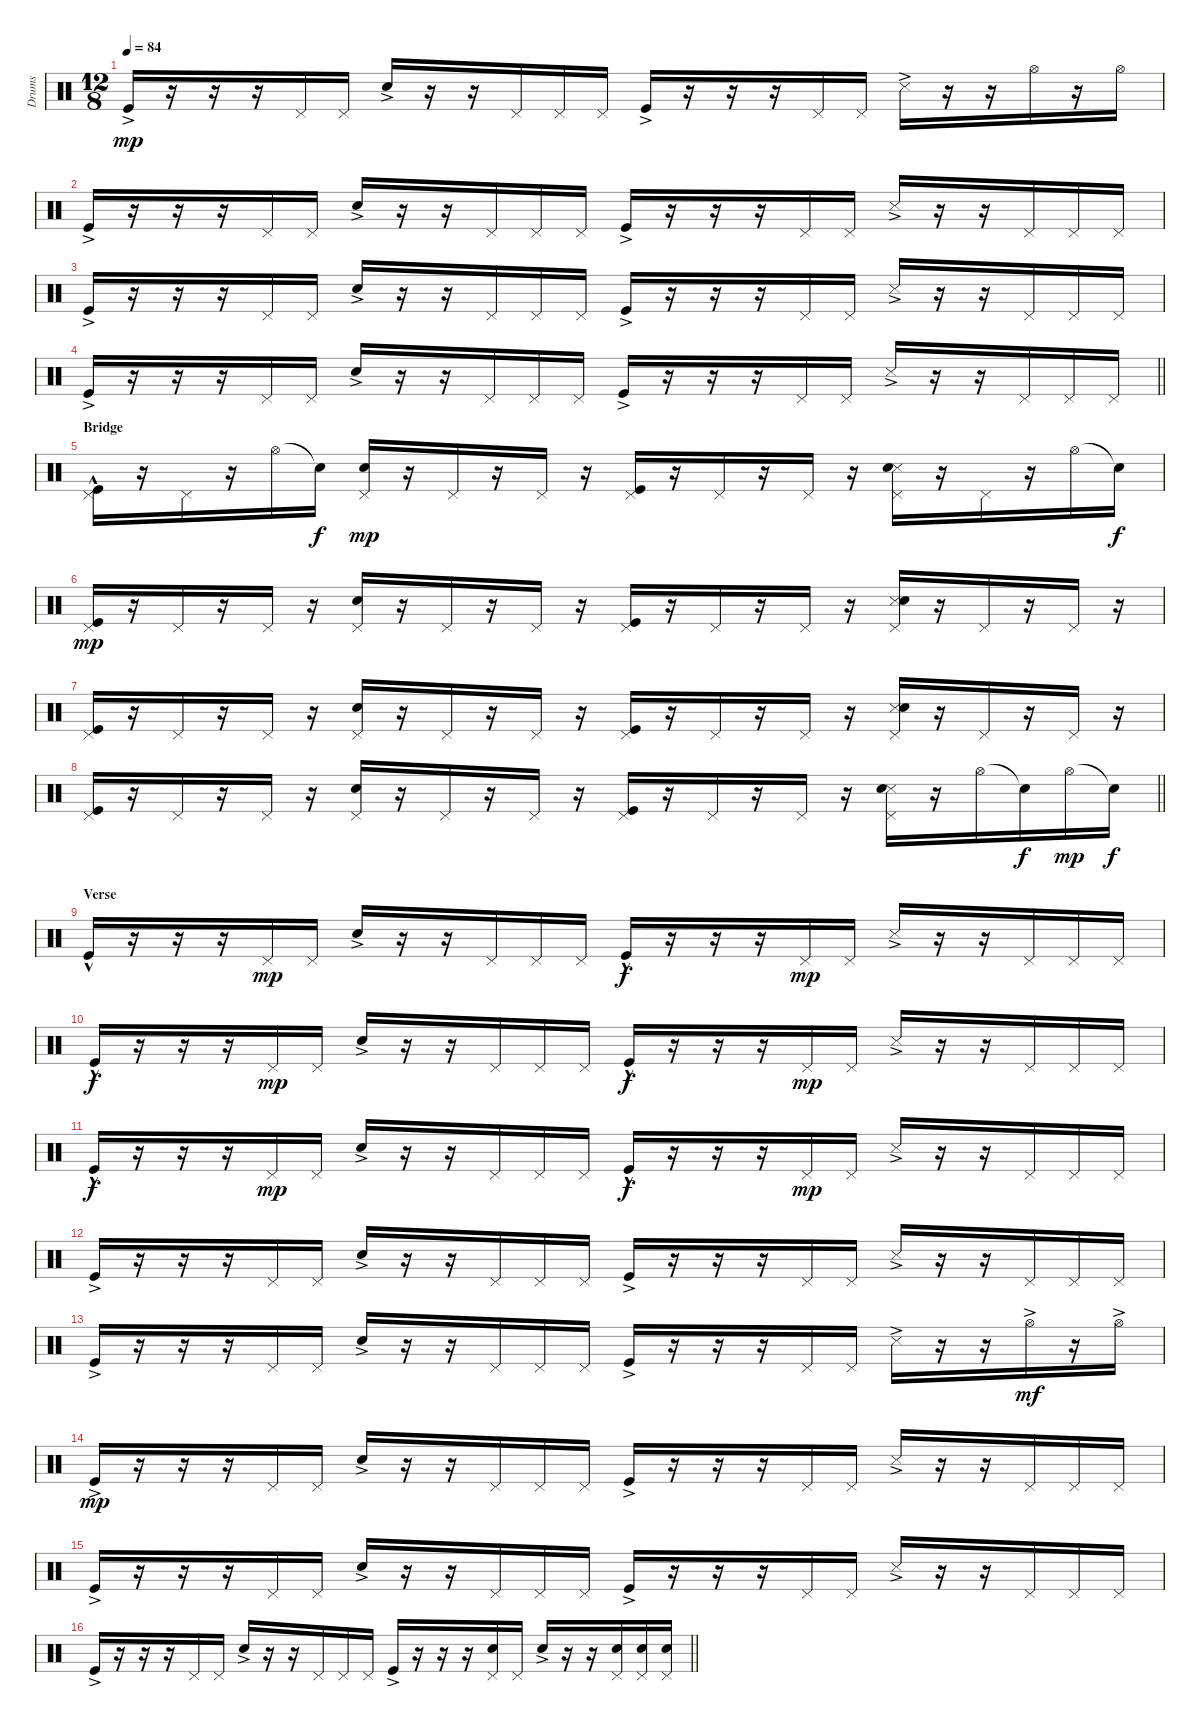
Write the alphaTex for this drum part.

\track ("Drums" "Drums") {instrument percussion}
\staff {score}
\articulation defaults
\ts (12 8)
\tempo 84
\clef neutral
\ks c "Kick (hit)"{ac}.16{dy mp}
r.16 r.16 r.16 "Pedal Hi-Hat (hit)".16 "Pedal Hi-Hat (hit)".16 "Electric Snare (hit)"{ac}.16 r.16 r.16 "Pedal Hi-Hat (hit)".16 "Pedal Hi-Hat (hit)".16 "Pedal Hi-Hat (hit)".16 "Kick (hit)"{ac}.16 r.16 r.16 r.16 "Pedal Hi-Hat (hit)".16 "Pedal Hi-Hat (hit)".16 "Snare (side stick) 3"{ac}.16 r.16 r.16 "Hi-Hat (open)".16 r.16 "Hi-Hat (open)".16 |
"Kick (hit)"{ac}.16 r.16 r.16 r.16 "Pedal Hi-Hat (hit)".16 "Pedal Hi-Hat (hit)".16 "Electric Snare (hit)"{ac}.16 r.16 r.16 "Pedal Hi-Hat (hit)".16 "Pedal Hi-Hat (hit)".16 "Pedal Hi-Hat (hit)".16 "Kick (hit)"{ac}.16 r.16 r.16 r.16 "Pedal Hi-Hat (hit)".16 "Pedal Hi-Hat (hit)".16 "Snare (side stick) 3"{ac}.16 r.16 r.16 "Pedal Hi-Hat (hit)".16 "Pedal Hi-Hat (hit)".16 "Pedal Hi-Hat (hit)".16 |
"Kick (hit)"{ac}.16 r.16 r.16 r.16 "Pedal Hi-Hat (hit)".16 "Pedal Hi-Hat (hit)".16 "Electric Snare (hit)"{ac}.16 r.16 r.16 "Pedal Hi-Hat (hit)".16 "Pedal Hi-Hat (hit)".16 "Pedal Hi-Hat (hit)".16 "Kick (hit)"{ac}.16 r.16 r.16 r.16 "Pedal Hi-Hat (hit)".16 "Pedal Hi-Hat (hit)".16 "Snare (side stick) 3"{ac}.16 r.16 r.16 "Pedal Hi-Hat (hit)".16 "Pedal Hi-Hat (hit)".16 "Pedal Hi-Hat (hit)".16 |
\barLineRight lightlight "Kick (hit)"{ac}.16
r.16 r.16 r.16 "Pedal Hi-Hat (hit)".16 "Pedal Hi-Hat (hit)".16 "Electric Snare (hit)"{ac}.16 r.16 r.16 "Pedal Hi-Hat (hit)".16 "Pedal Hi-Hat (hit)".16 "Pedal Hi-Hat (hit)".16 "Kick (hit)"{ac}.16 r.16 r.16 r.16 "Pedal Hi-Hat (hit)".16 "Pedal Hi-Hat (hit)".16 "Snare (side stick) 3"{ac}.16 r.16 r.16 "Pedal Hi-Hat (hit)".16 "Pedal Hi-Hat (hit)".16 "Pedal Hi-Hat (hit)".16 |
\section ("" "Bridge")
("Pedal Hi-Hat (hit)" "Kick (hit)"{hac}).16 r.16 "Pedal Hi-Hat (hit)".16 r.16 "Hi-Hat (open)".16 "Snare (hit)"{t}.16{dy f} ("Pedal Hi-Hat (hit)" "Electric Snare (hit)").16{dy mp} r.16 "Pedal Hi-Hat (hit)".16 r.16 "Pedal Hi-Hat (hit)".16 r.16 ("Pedal Hi-Hat (hit)" "Kick (hit)").16 r.16 "Pedal Hi-Hat (hit)".16 r.16 "Pedal Hi-Hat (hit)".16 r.16 ("Pedal Hi-Hat (hit)" "Snare (side stick) 3" "Electric Snare (hit)").16 r.16 "Pedal Hi-Hat (hit)".16 r.16 "Hi-Hat (open)".16 "Snare (hit)"{t}.16{dy f} |
("Pedal Hi-Hat (hit)" "Kick (hit)").16{dy mp} r.16 "Pedal Hi-Hat (hit)".16 r.16 "Pedal Hi-Hat (hit)".16 r.16 ("Pedal Hi-Hat (hit)" "Electric Snare (hit)").16 r.16 "Pedal Hi-Hat (hit)".16 r.16 "Pedal Hi-Hat (hit)".16 r.16 ("Pedal Hi-Hat (hit)" "Kick (hit)").16 r.16 "Pedal Hi-Hat (hit)".16 r.16 "Pedal Hi-Hat (hit)".16 r.16 ("Pedal Hi-Hat (hit)" "Snare (side stick) 3" "Electric Snare (hit)").16 r.16 "Pedal Hi-Hat (hit)".16 r.16 "Pedal Hi-Hat (hit)".16 r.16 |
("Pedal Hi-Hat (hit)" "Kick (hit)").16 r.16 "Pedal Hi-Hat (hit)".16 r.16 "Pedal Hi-Hat (hit)".16 r.16 ("Pedal Hi-Hat (hit)" "Electric Snare (hit)").16 r.16 "Pedal Hi-Hat (hit)".16 r.16 "Pedal Hi-Hat (hit)".16 r.16 ("Pedal Hi-Hat (hit)" "Kick (hit)").16 r.16 "Pedal Hi-Hat (hit)".16 r.16 "Pedal Hi-Hat (hit)".16 r.16 ("Pedal Hi-Hat (hit)" "Snare (side stick) 3" "Electric Snare (hit)").16 r.16 "Pedal Hi-Hat (hit)".16 r.16 "Pedal Hi-Hat (hit)".16 r.16 |
\barLineRight lightlight
("Pedal Hi-Hat (hit)" "Kick (hit)").16 r.16 "Pedal Hi-Hat (hit)".16 r.16 "Pedal Hi-Hat (hit)".16 r.16 ("Pedal Hi-Hat (hit)" "Electric Snare (hit)").16 r.16 "Pedal Hi-Hat (hit)".16 r.16 "Pedal Hi-Hat (hit)".16 r.16 ("Pedal Hi-Hat (hit)" "Kick (hit)").16 r.16 "Pedal Hi-Hat (hit)".16 r.16 "Pedal Hi-Hat (hit)".16 r.16 ("Pedal Hi-Hat (hit)" "Snare (side stick) 3" "Electric Snare (hit)").16 r.16 "Hi-Hat (open)".16 "Snare (hit)"{t}.16{dy f} "Hi-Hat (open)".16{dy mp} "Snare (hit)"{t}.16{dy f} |
\section ("" "Verse")
"Kick (hit)"{hac}.16 r.16 r.16 r.16 "Pedal Hi-Hat (hit)".16{dy mp} "Pedal Hi-Hat (hit)".16 "Electric Snare (hit)"{ac}.16 r.16 r.16 "Pedal Hi-Hat (hit)".16 "Pedal Hi-Hat (hit)".16 "Pedal Hi-Hat (hit)".16 "Kick (hit)"{hac}.16{dy f} r.16 r.16 r.16 "Pedal Hi-Hat (hit)".16{dy mp} "Pedal Hi-Hat (hit)".16 "Snare (side stick) 3"{ac}.16 r.16 r.16 "Pedal Hi-Hat (hit)".16 "Pedal Hi-Hat (hit)".16 "Pedal Hi-Hat (hit)".16 |
"Kick (hit)"{hac}.16{dy f} r.16 r.16 r.16 "Pedal Hi-Hat (hit)".16{dy mp} "Pedal Hi-Hat (hit)".16 "Electric Snare (hit)"{ac}.16 r.16 r.16 "Pedal Hi-Hat (hit)".16 "Pedal Hi-Hat (hit)".16 "Pedal Hi-Hat (hit)".16 "Kick (hit)"{hac}.16{dy f} r.16 r.16 r.16 "Pedal Hi-Hat (hit)".16{dy mp} "Pedal Hi-Hat (hit)".16 "Snare (side stick) 3"{ac}.16 r.16 r.16 "Pedal Hi-Hat (hit)".16 "Pedal Hi-Hat (hit)".16 "Pedal Hi-Hat (hit)".16 |
"Kick (hit)"{hac}.16{dy f} r.16 r.16 r.16 "Pedal Hi-Hat (hit)".16{dy mp} "Pedal Hi-Hat (hit)".16 "Electric Snare (hit)"{ac}.16 r.16 r.16 "Pedal Hi-Hat (hit)".16 "Pedal Hi-Hat (hit)".16 "Pedal Hi-Hat (hit)".16 "Kick (hit)"{hac}.16{dy f} r.16 r.16 r.16 "Pedal Hi-Hat (hit)".16{dy mp} "Pedal Hi-Hat (hit)".16 "Snare (side stick) 3"{ac}.16 r.16 r.16 "Pedal Hi-Hat (hit)".16 "Pedal Hi-Hat (hit)".16 "Pedal Hi-Hat (hit)".16 |
"Kick (hit)"{ac}.16 r.16 r.16 r.16 "Pedal Hi-Hat (hit)".16 "Pedal Hi-Hat (hit)".16 "Electric Snare (hit)"{ac}.16 r.16 r.16 "Pedal Hi-Hat (hit)".16 "Pedal Hi-Hat (hit)".16 "Pedal Hi-Hat (hit)".16 "Kick (hit)"{ac}.16 r.16 r.16 r.16 "Pedal Hi-Hat (hit)".16 "Pedal Hi-Hat (hit)".16 "Snare (side stick) 3"{ac}.16 r.16 r.16 "Pedal Hi-Hat (hit)".16 "Pedal Hi-Hat (hit)".16 "Pedal Hi-Hat (hit)".16 |
"Kick (hit)"{ac}.16 r.16 r.16 r.16 "Pedal Hi-Hat (hit)".16 "Pedal Hi-Hat (hit)".16 "Electric Snare (hit)"{ac}.16 r.16 r.16 "Pedal Hi-Hat (hit)".16 "Pedal Hi-Hat (hit)".16 "Pedal Hi-Hat (hit)".16 "Kick (hit)"{ac}.16 r.16 r.16 r.16 "Pedal Hi-Hat (hit)".16 "Pedal Hi-Hat (hit)".16 "Snare (side stick) 3"{ac}.16 r.16 r.16 "Hi-Hat (open)"{ac}.16{dy mf} r.16 "Hi-Hat (open)"{ac}.16 |
"Kick (hit)"{ac}.16{dy mp} r.16 r.16 r.16 "Pedal Hi-Hat (hit)".16 "Pedal Hi-Hat (hit)".16 "Electric Snare (hit)"{ac}.16 r.16 r.16 "Pedal Hi-Hat (hit)".16 "Pedal Hi-Hat (hit)".16 "Pedal Hi-Hat (hit)".16 "Kick (hit)"{ac}.16 r.16 r.16 r.16 "Pedal Hi-Hat (hit)".16 "Pedal Hi-Hat (hit)".16 "Snare (side stick) 3"{ac}.16 r.16 r.16 "Pedal Hi-Hat (hit)".16 "Pedal Hi-Hat (hit)".16 "Pedal Hi-Hat (hit)".16 |
"Kick (hit)"{ac}.16 r.16 r.16 r.16 "Pedal Hi-Hat (hit)".16 "Pedal Hi-Hat (hit)".16 "Electric Snare (hit)"{ac}.16 r.16 r.16 "Pedal Hi-Hat (hit)".16 "Pedal Hi-Hat (hit)".16 "Pedal Hi-Hat (hit)".16 "Kick (hit)"{ac}.16 r.16 r.16 r.16 "Pedal Hi-Hat (hit)".16 "Pedal Hi-Hat (hit)".16 "Snare (side stick) 3"{ac}.16 r.16 r.16 "Pedal Hi-Hat (hit)".16 "Pedal Hi-Hat (hit)".16 "Pedal Hi-Hat (hit)".16 |
\barLineRight lightlight "Kick (hit)"{ac}.16
r.16 r.16 r.16 "Pedal Hi-Hat (hit)".16 "Pedal Hi-Hat (hit)".16 "Electric Snare (hit)"{ac}.16 r.16 r.16 "Pedal Hi-Hat (hit)".16 "Pedal Hi-Hat (hit)".16 "Pedal Hi-Hat (hit)".16 "Kick (hit)"{ac}.16 r.16 r.16 r.16 ("Pedal Hi-Hat (hit)" "Electric Snare (hit)").16 "Pedal Hi-Hat (hit)".16 "Electric Snare (hit)"{ac}.16 r.16 r.16 ("Pedal Hi-Hat (hit)" "Electric Snare (hit)").16 ("Pedal Hi-Hat (hit)" "Electric Snare (hit)").16 ("Pedal Hi-Hat (hit)" "Electric Snare (hit)").16
